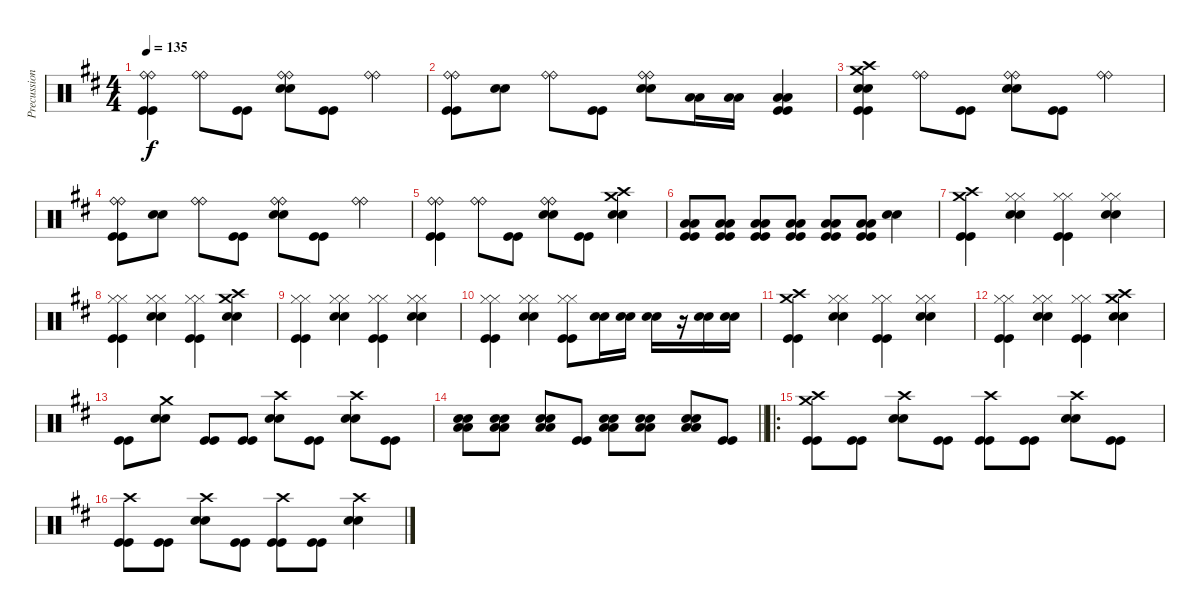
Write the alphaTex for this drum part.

\track ("Precussion" "Precussion") {instrument percussion}
\staff {score}
\articulation defaults
\ts (4 4)
\tempo 135
\clef neutral
\ks d
("Ride (bell)" "Ride (bell)" "Kick (hit)" "Kick (hit)").4{dy f} ("Ride (bell)" "Ride (bell)").8 ("Kick (hit)" "Kick (hit)").8 ("Ride (bell)" "Ride (bell)" "Electric Snare (hit)" "Electric Snare (hit)").8 ("Kick (hit)" "Kick (hit)").8 ("Ride (bell)" "Ride (bell)").4 |
("Ride (bell)" "Ride (bell)" "Kick (hit)" "Kick (hit)").8 ("Electric Snare (hit)" "Electric Snare (hit)").8 ("Ride (bell)" "Ride (bell)").8 ("Kick (hit)" "Kick (hit)").8 ("Ride (bell)" "Ride (bell)" "Electric Snare (hit)" "Electric Snare (hit)").8 ("Low Tom (hit)" "Low Tom (hit)").16 ("Low Tom (hit)" "Low Tom (hit)").16 ("Low Floor Tom (hit)" "Low Floor Tom (hit)" "Kick (hit)" "Kick (hit)").4 |
("Crash medium (hit)" "Crash high (hit)" "Electric Snare (hit)" "Electric Snare (hit)" "Kick (hit)" "Kick (hit)").4 ("Ride (bell)" "Ride (bell)").8 ("Kick (hit)" "Kick (hit)").8 ("Ride (bell)" "Ride (bell)" "Electric Snare (hit)" "Electric Snare (hit)").8 ("Kick (hit)" "Kick (hit)").8 ("Ride (bell)" "Ride (bell)").4 |
("Ride (bell)" "Ride (bell)" "Kick (hit)" "Kick (hit)").8 ("Electric Snare (hit)" "Electric Snare (hit)").8 ("Ride (bell)" "Ride (bell)").8 ("Kick (hit)" "Kick (hit)").8 ("Ride (bell)" "Ride (bell)" "Electric Snare (hit)" "Electric Snare (hit)").8 ("Kick (hit)" "Kick (hit)").8 ("Ride (bell)" "Ride (bell)").4 |
("Ride (bell)" "Ride (bell)" "Kick (hit)" "Kick (hit)").4 ("Ride (bell)" "Ride (bell)").8 ("Kick (hit)" "Kick (hit)").8 ("Ride (bell)" "Ride (bell)" "Electric Snare (hit)" "Electric Snare (hit)").8 ("Kick (hit)" "Kick (hit)").8 ("Crash high (hit)" "Crash medium (hit)" "Electric Snare (hit)" "Electric Snare (hit)").4 |
("Low Floor Tom (hit)" "Low Floor Tom (hit)" "Kick (hit)" "Kick (hit)").8 ("Low Floor Tom (hit)" "Low Floor Tom (hit)" "Kick (hit)" "Kick (hit)").8 ("Low Floor Tom (hit)" "Low Floor Tom (hit)" "Kick (hit)" "Kick (hit)").8 ("Low Tom (hit)" "Low Tom (hit)" "Kick (hit)" "Kick (hit)").8 ("Low Tom (hit)" "Low Tom (hit)" "Kick (hit)" "Kick (hit)").8 ("Low Tom (hit)" "Low Tom (hit)" "Kick (hit)" "Kick (hit)").8 ("Electric Snare (hit)" "Electric Snare (hit)").4 |
("Crash high (hit)" "Crash medium (hit)" "Kick (hit)" "Kick (hit)").4 ("Hi-Hat (closed)" "Hi-Hat (closed)" "Electric Snare (hit)" "Electric Snare (hit)").4 ("Hi-Hat (closed)" "Hi-Hat (closed)" "Kick (hit)" "Kick (hit)").4 ("Hi-Hat (closed)" "Hi-Hat (closed)" "Electric Snare (hit)" "Electric Snare (hit)").4 |
("Hi-Hat (closed)" "Hi-Hat (closed)" "Kick (hit)" "Kick (hit)").4 ("Hi-Hat (closed)" "Hi-Hat (closed)" "Electric Snare (hit)" "Electric Snare (hit)").4 ("Hi-Hat (closed)" "Hi-Hat (closed)" "Kick (hit)" "Kick (hit)").4 ("Crash high (hit)" "Crash medium (hit)" "Electric Snare (hit)" "Electric Snare (hit)").4 |
("Hi-Hat (closed)" "Hi-Hat (closed)" "Kick (hit)" "Kick (hit)").4 ("Hi-Hat (closed)" "Hi-Hat (closed)" "Electric Snare (hit)" "Electric Snare (hit)").4 ("Hi-Hat (closed)" "Hi-Hat (closed)" "Kick (hit)" "Kick (hit)").4 ("Hi-Hat (closed)" "Hi-Hat (closed)" "Electric Snare (hit)" "Electric Snare (hit)").4 |
("Hi-Hat (closed)" "Hi-Hat (closed)" "Kick (hit)" "Kick (hit)").4 ("Hi-Hat (closed)" "Hi-Hat (closed)" "Electric Snare (hit)" "Electric Snare (hit)").4 ("Hi-Hat (closed)" "Hi-Hat (closed)" "Kick (hit)" "Kick (hit)").8 ("Electric Snare (hit)" "Electric Snare (hit)").16 ("Electric Snare (hit)" "Electric Snare (hit)").16 ("Electric Snare (hit)" "Electric Snare (hit)").16 r.16 ("Electric Snare (hit)" "Electric Snare (hit)").16 ("Electric Snare (hit)" "Electric Snare (hit)").16 |
("Crash high (hit)" "Crash medium (hit)" "Kick (hit)" "Kick (hit)").4 ("Hi-Hat (closed)" "Hi-Hat (closed)" "Electric Snare (hit)" "Electric Snare (hit)").4 ("Hi-Hat (closed)" "Hi-Hat (closed)" "Kick (hit)" "Kick (hit)").4 ("Hi-Hat (closed)" "Hi-Hat (closed)" "Electric Snare (hit)" "Electric Snare (hit)").4 |
("Hi-Hat (closed)" "Hi-Hat (closed)" "Kick (hit)" "Kick (hit)").4 ("Hi-Hat (closed)" "Hi-Hat (closed)" "Electric Snare (hit)" "Electric Snare (hit)").4 ("Hi-Hat (closed)" "Hi-Hat (closed)" "Kick (hit)" "Kick (hit)").4 ("Crash high (hit)" "Crash medium (hit)" "Electric Snare (hit)" "Electric Snare (hit)").4 |
("Kick (hit)" "Kick (hit)").8 ("Crash medium (hit)" "Electric Snare (hit)" "Electric Snare (hit)").8 ("Kick (hit)" "Kick (hit)").8 ("Kick (hit)" "Kick (hit)").8 ("Crash high (hit)" "Electric Snare (hit)" "Electric Snare (hit)").8 ("Kick (hit)" "Kick (hit)").8 ("Crash high (hit)" "Electric Snare (hit)" "Electric Snare (hit)").8 ("Kick (hit)" "Kick (hit)").8 |
\barLineRight lightlight
("Electric Snare (hit)" "Electric Snare (hit)" "Low Floor Tom (hit)" "Low Floor Tom (hit)").8 ("Electric Snare (hit)" "Electric Snare (hit)" "Low Floor Tom (hit)" "Low Floor Tom (hit)").8 ("Electric Snare (hit)" "Electric Snare (hit)" "Low Floor Tom (hit)" "Low Floor Tom (hit)").8 ("Kick (hit)" "Kick (hit)").8 ("Electric Snare (hit)" "Electric Snare (hit)" "Low Tom (hit)" "Low Tom (hit)").8 ("Electric Snare (hit)" "Electric Snare (hit)" "Low Tom (hit)" "Low Tom (hit)").8 ("Electric Snare (hit)" "Electric Snare (hit)" "Low Tom (hit)" "Low Tom (hit)").8 ("Kick (hit)" "Kick (hit)").8 |
\ro
("Crash high (hit)" "Crash medium (hit)" "Kick (hit)" "Kick (hit)").8 ("Kick (hit)" "Kick (hit)").8 ("Crash high (hit)" "Electric Snare (hit)" "Electric Snare (hit)").8 ("Kick (hit)" "Kick (hit)").8 ("Crash high (hit)" "Kick (hit)" "Kick (hit)").8 ("Kick (hit)" "Kick (hit)").8 ("Crash high (hit)" "Electric Snare (hit)" "Electric Snare (hit)").8 ("Kick (hit)" "Kick (hit)").8 |
("Crash high (hit)" "Kick (hit)" "Kick (hit)").8 ("Kick (hit)" "Kick (hit)").8 ("Crash high (hit)" "Electric Snare (hit)" "Electric Snare (hit)").8 ("Kick (hit)" "Kick (hit)").8 ("Crash high (hit)" "Kick (hit)" "Kick (hit)").8 ("Kick (hit)" "Kick (hit)").8 ("Crash high (hit)" "Electric Snare (hit)" "Electric Snare (hit)").4
